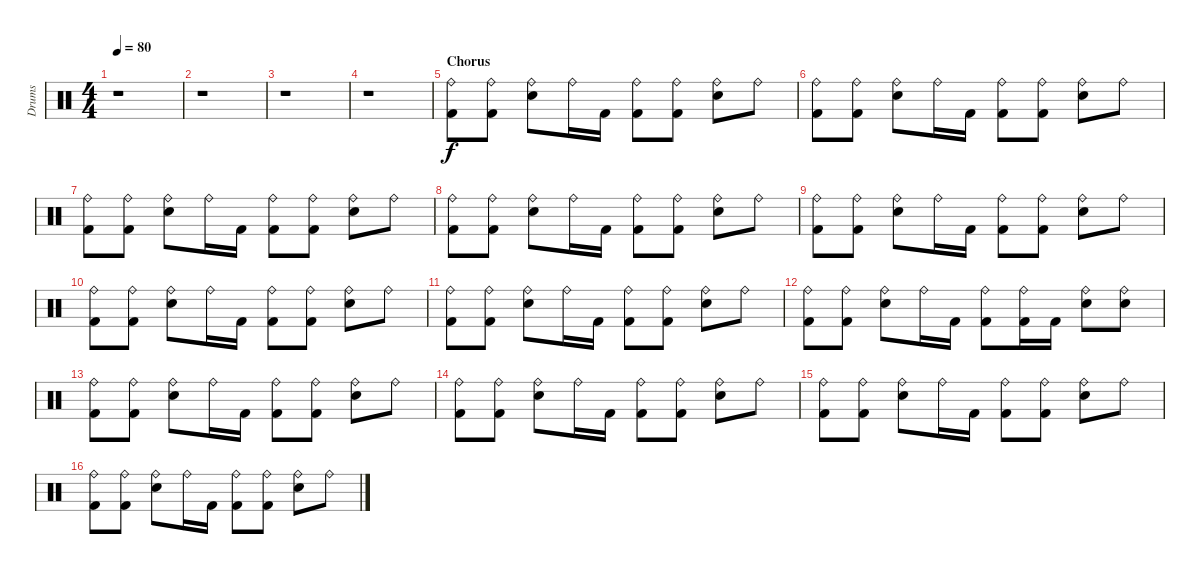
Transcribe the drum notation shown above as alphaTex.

\track ("Drums" "Drums") {instrument percussion}
\staff {score}
\articulation defaults
\ts (4 4)
\tempo 80
\clef neutral
\ks c
r.1{dy f} |
r.1 |
r.1 |
r.1 |
\section ("" "Chorus")
("Kick (hit) 2" "Ride (bell)").8 ("Kick (hit) 2" "Ride (bell)").8 ("Electric Snare (hit)" "Ride (bell)").8 "Ride (bell)".16 "Kick (hit) 2".16 ("Kick (hit) 2" "Ride (bell)").8 ("Kick (hit) 2" "Ride (bell)").8 ("Electric Snare (hit)" "Ride (bell)").8 "Ride (bell)".8 |
("Kick (hit) 2" "Ride (bell)").8 ("Kick (hit) 2" "Ride (bell)").8 ("Electric Snare (hit)" "Ride (bell)").8 "Ride (bell)".16 "Kick (hit) 2".16 ("Kick (hit) 2" "Ride (bell)").8 ("Kick (hit) 2" "Ride (bell)").8 ("Electric Snare (hit)" "Ride (bell)").8 "Ride (bell)".8 |
("Kick (hit) 2" "Ride (bell)").8 ("Kick (hit) 2" "Ride (bell)").8 ("Electric Snare (hit)" "Ride (bell)").8 "Ride (bell)".16 "Kick (hit) 2".16 ("Kick (hit) 2" "Ride (bell)").8 ("Kick (hit) 2" "Ride (bell)").8 ("Electric Snare (hit)" "Ride (bell)").8 "Ride (bell)".8 |
("Kick (hit) 2" "Ride (bell)").8 ("Kick (hit) 2" "Ride (bell)").8 ("Electric Snare (hit)" "Ride (bell)").8 "Ride (bell)".16 "Kick (hit) 2".16 ("Kick (hit) 2" "Ride (bell)").8 ("Kick (hit) 2" "Ride (bell)").8 ("Electric Snare (hit)" "Ride (bell)").8 "Ride (bell)".8 |
("Kick (hit) 2" "Ride (bell)").8 ("Kick (hit) 2" "Ride (bell)").8 ("Electric Snare (hit)" "Ride (bell)").8 "Ride (bell)".16 "Kick (hit) 2".16 ("Kick (hit) 2" "Ride (bell)").8 ("Kick (hit) 2" "Ride (bell)").8 ("Electric Snare (hit)" "Ride (bell)").8 "Ride (bell)".8 |
("Kick (hit) 2" "Ride (bell)").8 ("Kick (hit) 2" "Ride (bell)").8 ("Electric Snare (hit)" "Ride (bell)").8 "Ride (bell)".16 "Kick (hit) 2".16 ("Kick (hit) 2" "Ride (bell)").8 ("Kick (hit) 2" "Ride (bell)").8 ("Electric Snare (hit)" "Ride (bell)").8 "Ride (bell)".8 |
("Kick (hit) 2" "Ride (bell)").8 ("Kick (hit) 2" "Ride (bell)").8 ("Electric Snare (hit)" "Ride (bell)").8 "Ride (bell)".16 "Kick (hit) 2".16 ("Kick (hit) 2" "Ride (bell)").8 ("Kick (hit) 2" "Ride (bell)").8 ("Electric Snare (hit)" "Ride (bell)").8 "Ride (bell)".8 |
("Kick (hit) 2" "Ride (bell)").8 ("Kick (hit) 2" "Ride (bell)").8 ("Electric Snare (hit)" "Ride (bell)").8 "Ride (bell)".16 "Kick (hit) 2".16 ("Kick (hit) 2" "Ride (bell)").8 ("Kick (hit) 2" "Ride (bell)").16 "Kick (hit) 2".16 ("Electric Snare (hit)" "Ride (bell)").8 ("Electric Snare (hit)" "Ride (bell)").8 |
("Kick (hit) 2" "Ride (bell)").8 ("Kick (hit) 2" "Ride (bell)").8 ("Electric Snare (hit)" "Ride (bell)").8 "Ride (bell)".16 "Kick (hit) 2".16 ("Kick (hit) 2" "Ride (bell)").8 ("Kick (hit) 2" "Ride (bell)").8 ("Electric Snare (hit)" "Ride (bell)").8 "Ride (bell)".8 |
("Kick (hit) 2" "Ride (bell)").8 ("Kick (hit) 2" "Ride (bell)").8 ("Electric Snare (hit)" "Ride (bell)").8 "Ride (bell)".16 "Kick (hit) 2".16 ("Kick (hit) 2" "Ride (bell)").8 ("Kick (hit) 2" "Ride (bell)").8 ("Electric Snare (hit)" "Ride (bell)").8 "Ride (bell)".8 |
("Kick (hit) 2" "Ride (bell)").8 ("Kick (hit) 2" "Ride (bell)").8 ("Electric Snare (hit)" "Ride (bell)").8 "Ride (bell)".16 "Kick (hit) 2".16 ("Kick (hit) 2" "Ride (bell)").8 ("Kick (hit) 2" "Ride (bell)").8 ("Electric Snare (hit)" "Ride (bell)").8 "Ride (bell)".8 |
("Kick (hit) 2" "Ride (bell)").8 ("Kick (hit) 2" "Ride (bell)").8 ("Electric Snare (hit)" "Ride (bell)").8 "Ride (bell)".16 "Kick (hit) 2".16 ("Kick (hit) 2" "Ride (bell)").8 ("Kick (hit) 2" "Ride (bell)").8 ("Electric Snare (hit)" "Ride (bell)").8 "Ride (bell)".8
